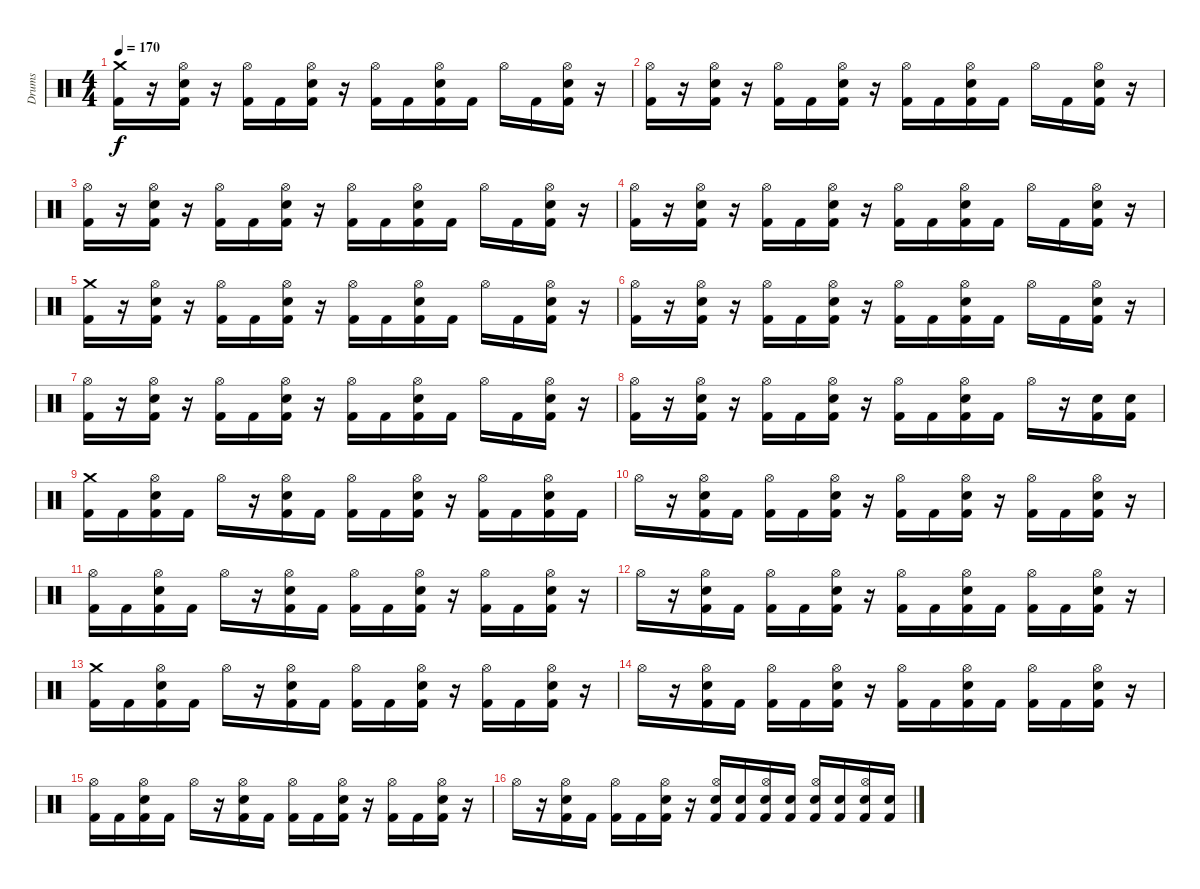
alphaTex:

\track ("Drums" "Drums") {instrument percussion}
\staff {score}
\articulation defaults
\ts (4 4)
\tempo 170
\clef neutral
\ks c
("Crash medium (hit)" "Kick (hit) 2").16{dy f} r.16 ("Hi-Hat (open)" "Electric Snare (hit)" "Kick (hit) 2").16 r.16 ("Hi-Hat (open)" "Kick (hit) 2").16 "Kick (hit) 2".16 ("Hi-Hat (open)" "Electric Snare (hit)" "Kick (hit) 2").16 r.16 ("Hi-Hat (open)" "Kick (hit) 2").16 "Kick (hit) 2".16 ("Hi-Hat (open)" "Electric Snare (hit)" "Kick (hit) 2").16 "Kick (hit) 2".16 "Hi-Hat (open)".16 "Kick (hit) 2".16 ("Hi-Hat (open)" "Electric Snare (hit)" "Kick (hit) 2").16 r.16 |
("Hi-Hat (open)" "Kick (hit) 2").16 r.16 ("Hi-Hat (open)" "Electric Snare (hit)" "Kick (hit) 2").16 r.16 ("Hi-Hat (open)" "Kick (hit) 2").16 "Kick (hit) 2".16 ("Hi-Hat (open)" "Electric Snare (hit)" "Kick (hit) 2").16 r.16 ("Hi-Hat (open)" "Kick (hit) 2").16 "Kick (hit) 2".16 ("Hi-Hat (open)" "Electric Snare (hit)" "Kick (hit) 2").16 "Kick (hit) 2".16 "Hi-Hat (open)".16 "Kick (hit) 2".16 ("Hi-Hat (open)" "Electric Snare (hit)" "Kick (hit) 2").16 r.16 |
("Hi-Hat (open)" "Kick (hit) 2").16 r.16 ("Hi-Hat (open)" "Electric Snare (hit)" "Kick (hit) 2").16 r.16 ("Hi-Hat (open)" "Kick (hit) 2").16 "Kick (hit) 2".16 ("Hi-Hat (open)" "Electric Snare (hit)" "Kick (hit) 2").16 r.16 ("Hi-Hat (open)" "Kick (hit) 2").16 "Kick (hit) 2".16 ("Hi-Hat (open)" "Electric Snare (hit)" "Kick (hit) 2").16 "Kick (hit) 2".16 "Hi-Hat (open)".16 "Kick (hit) 2".16 ("Hi-Hat (open)" "Electric Snare (hit)" "Kick (hit) 2").16 r.16 |
("Hi-Hat (open)" "Kick (hit) 2").16 r.16 ("Hi-Hat (open)" "Electric Snare (hit)" "Kick (hit) 2").16 r.16 ("Hi-Hat (open)" "Kick (hit) 2").16 "Kick (hit) 2".16 ("Hi-Hat (open)" "Electric Snare (hit)" "Kick (hit) 2").16 r.16 ("Hi-Hat (open)" "Kick (hit) 2").16 "Kick (hit) 2".16 ("Hi-Hat (open)" "Electric Snare (hit)" "Kick (hit) 2").16 "Kick (hit) 2".16 "Hi-Hat (open)".16 "Kick (hit) 2".16 ("Hi-Hat (open)" "Electric Snare (hit)" "Kick (hit) 2").16 r.16 |
("Crash medium (hit)" "Kick (hit) 2").16 r.16 ("Hi-Hat (open)" "Electric Snare (hit)" "Kick (hit) 2").16 r.16 ("Hi-Hat (open)" "Kick (hit) 2").16 "Kick (hit) 2".16 ("Hi-Hat (open)" "Electric Snare (hit)" "Kick (hit) 2").16 r.16 ("Hi-Hat (open)" "Kick (hit) 2").16 "Kick (hit) 2".16 ("Hi-Hat (open)" "Electric Snare (hit)" "Kick (hit) 2").16 "Kick (hit) 2".16 "Hi-Hat (open)".16 "Kick (hit) 2".16 ("Hi-Hat (open)" "Electric Snare (hit)" "Kick (hit) 2").16 r.16 |
("Hi-Hat (open)" "Kick (hit) 2").16 r.16 ("Hi-Hat (open)" "Electric Snare (hit)" "Kick (hit) 2").16 r.16 ("Hi-Hat (open)" "Kick (hit) 2").16 "Kick (hit) 2".16 ("Hi-Hat (open)" "Electric Snare (hit)" "Kick (hit) 2").16 r.16 ("Hi-Hat (open)" "Kick (hit) 2").16 "Kick (hit) 2".16 ("Hi-Hat (open)" "Electric Snare (hit)" "Kick (hit) 2").16 "Kick (hit) 2".16 "Hi-Hat (open)".16 "Kick (hit) 2".16 ("Hi-Hat (open)" "Electric Snare (hit)" "Kick (hit) 2").16 r.16 |
("Hi-Hat (open)" "Kick (hit) 2").16 r.16 ("Hi-Hat (open)" "Electric Snare (hit)" "Kick (hit) 2").16 r.16 ("Hi-Hat (open)" "Kick (hit) 2").16 "Kick (hit) 2".16 ("Hi-Hat (open)" "Electric Snare (hit)" "Kick (hit) 2").16 r.16 ("Hi-Hat (open)" "Kick (hit) 2").16 "Kick (hit) 2".16 ("Hi-Hat (open)" "Electric Snare (hit)" "Kick (hit) 2").16 "Kick (hit) 2".16 "Hi-Hat (open)".16 "Kick (hit) 2".16 ("Hi-Hat (open)" "Electric Snare (hit)" "Kick (hit) 2").16 r.16 |
("Hi-Hat (open)" "Kick (hit) 2").16 r.16 ("Hi-Hat (open)" "Electric Snare (hit)" "Kick (hit) 2").16 r.16 ("Hi-Hat (open)" "Kick (hit) 2").16 "Kick (hit) 2".16 ("Hi-Hat (open)" "Electric Snare (hit)" "Kick (hit) 2").16 r.16 ("Hi-Hat (open)" "Kick (hit) 2").16 "Kick (hit) 2".16 ("Hi-Hat (open)" "Electric Snare (hit)" "Kick (hit) 2").16 "Kick (hit) 2".16 "Hi-Hat (open)".16 r.16 ("Electric Snare (hit)" "Kick (hit) 2").16 ("Electric Snare (hit)" "Kick (hit) 2").16 |
("Crash medium (hit)" "Kick (hit) 2").16 "Kick (hit) 2".16 ("Hi-Hat (open)" "Electric Snare (hit)" "Kick (hit) 2").16 "Kick (hit) 2".16 "Hi-Hat (open)".16 r.16 ("Hi-Hat (open)" "Electric Snare (hit)" "Kick (hit) 2").16 "Kick (hit) 2".16 ("Hi-Hat (open)" "Kick (hit) 2").16 "Kick (hit) 2".16 ("Hi-Hat (open)" "Electric Snare (hit)" "Kick (hit) 2").16 r.16 ("Hi-Hat (open)" "Kick (hit) 2").16 "Kick (hit) 2".16 ("Hi-Hat (open)" "Electric Snare (hit)" "Kick (hit) 2").16 "Kick (hit) 2".16 |
"Hi-Hat (open)".16 r.16 ("Hi-Hat (open)" "Electric Snare (hit)" "Kick (hit) 2").16 "Kick (hit) 2".16 ("Hi-Hat (open)" "Kick (hit) 2").16 "Kick (hit) 2".16 ("Hi-Hat (open)" "Electric Snare (hit)" "Kick (hit) 2").16 r.16 ("Hi-Hat (open)" "Kick (hit) 2").16 "Kick (hit) 2".16 ("Hi-Hat (open)" "Electric Snare (hit)" "Kick (hit) 2").16 r.16 ("Hi-Hat (open)" "Kick (hit) 2").16 "Kick (hit) 2".16 ("Hi-Hat (open)" "Electric Snare (hit)" "Kick (hit) 2").16 r.16 |
("Hi-Hat (open)" "Kick (hit) 2").16 "Kick (hit) 2".16 ("Hi-Hat (open)" "Electric Snare (hit)" "Kick (hit) 2").16 "Kick (hit) 2".16 "Hi-Hat (open)".16 r.16 ("Hi-Hat (open)" "Electric Snare (hit)" "Kick (hit) 2").16 "Kick (hit) 2".16 ("Hi-Hat (open)" "Kick (hit) 2").16 "Kick (hit) 2".16 ("Hi-Hat (open)" "Electric Snare (hit)" "Kick (hit) 2").16 r.16 ("Hi-Hat (open)" "Kick (hit) 2").16 "Kick (hit) 2".16 ("Hi-Hat (open)" "Electric Snare (hit)" "Kick (hit) 2").16 r.16 |
"Hi-Hat (open)".16 r.16 ("Hi-Hat (open)" "Electric Snare (hit)" "Kick (hit) 2").16 "Kick (hit) 2".16 ("Hi-Hat (open)" "Kick (hit) 2").16 "Kick (hit) 2".16 ("Hi-Hat (open)" "Electric Snare (hit)" "Kick (hit) 2").16 r.16 ("Hi-Hat (open)" "Kick (hit) 2").16 "Kick (hit) 2".16 ("Hi-Hat (open)" "Electric Snare (hit)" "Kick (hit) 2").16 "Kick (hit) 2".16 ("Hi-Hat (open)" "Kick (hit) 2").16 "Kick (hit) 2".16 ("Hi-Hat (open)" "Electric Snare (hit)" "Kick (hit) 2").16 r.16 |
("Crash medium (hit)" "Kick (hit) 2").16 "Kick (hit) 2".16 ("Hi-Hat (open)" "Electric Snare (hit)" "Kick (hit) 2").16 "Kick (hit) 2".16 "Hi-Hat (open)".16 r.16 ("Hi-Hat (open)" "Electric Snare (hit)" "Kick (hit) 2").16 "Kick (hit) 2".16 ("Hi-Hat (open)" "Kick (hit) 2").16 "Kick (hit) 2".16 ("Hi-Hat (open)" "Electric Snare (hit)" "Kick (hit) 2").16 r.16 ("Hi-Hat (open)" "Kick (hit) 2").16 "Kick (hit) 2".16 ("Hi-Hat (open)" "Electric Snare (hit)" "Kick (hit) 2").16 r.16 |
"Hi-Hat (open)".16 r.16 ("Hi-Hat (open)" "Electric Snare (hit)" "Kick (hit) 2").16 "Kick (hit) 2".16 ("Hi-Hat (open)" "Kick (hit) 2").16 "Kick (hit) 2".16 ("Hi-Hat (open)" "Electric Snare (hit)" "Kick (hit) 2").16 r.16 ("Hi-Hat (open)" "Kick (hit) 2").16 "Kick (hit) 2".16 ("Hi-Hat (open)" "Electric Snare (hit)" "Kick (hit) 2").16 "Kick (hit) 2".16 ("Hi-Hat (open)" "Kick (hit) 2").16 "Kick (hit) 2".16 ("Hi-Hat (open)" "Electric Snare (hit)" "Kick (hit) 2").16 r.16 |
("Hi-Hat (open)" "Kick (hit) 2").16 "Kick (hit) 2".16 ("Hi-Hat (open)" "Electric Snare (hit)" "Kick (hit) 2").16 "Kick (hit) 2".16 "Hi-Hat (open)".16 r.16 ("Hi-Hat (open)" "Electric Snare (hit)" "Kick (hit) 2").16 "Kick (hit) 2".16 ("Hi-Hat (open)" "Kick (hit) 2").16 "Kick (hit) 2".16 ("Hi-Hat (open)" "Electric Snare (hit)" "Kick (hit) 2").16 r.16 ("Hi-Hat (open)" "Kick (hit) 2").16 "Kick (hit) 2".16 ("Hi-Hat (open)" "Electric Snare (hit)" "Kick (hit) 2").16 r.16 |
"Hi-Hat (open)".16 r.16 ("Hi-Hat (open)" "Electric Snare (hit)" "Kick (hit) 2").16 "Kick (hit) 2".16 ("Hi-Hat (open)" "Kick (hit) 2").16 "Kick (hit) 2".16 ("Hi-Hat (open)" "Electric Snare (hit)" "Kick (hit) 2").16 r.16 ("Hi-Hat (open)" "Electric Snare (hit)" "Kick (hit) 2").16 ("Electric Snare (hit)" "Kick (hit) 2").16 ("Hi-Hat (open)" "Electric Snare (hit)" "Kick (hit) 2").16 ("Electric Snare (hit)" "Kick (hit) 2").16 ("Hi-Hat (open)" "Electric Snare (hit)" "Kick (hit) 2").16 ("Electric Snare (hit)" "Kick (hit) 2").16 ("Hi-Hat (open)" "Electric Snare (hit)" "Kick (hit) 2").16 ("Electric Snare (hit)" "Kick (hit) 2").16
